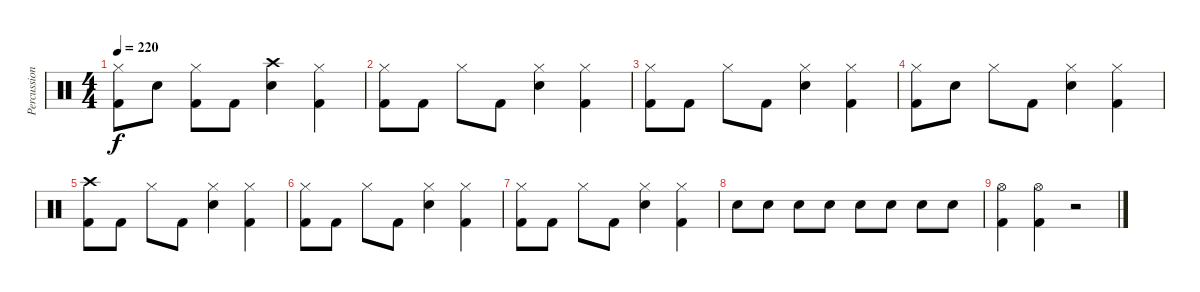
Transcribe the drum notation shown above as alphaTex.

\track ("Percussion" "Percussion") {instrument percussion}
\staff {score}
\articulation defaults
\ts (4 4)
\tempo 220
\clef neutral
\ks c
("Hi-Hat (closed)" "Kick (hit) 2").8{dy f} "Snare (hit) 2".8 ("Hi-Hat (closed)" "Kick (hit) 2").8 "Kick (hit) 2".8 ("Crash high (hit)" "Snare (hit) 2").4 ("Hi-Hat (closed)" "Kick (hit) 2").4 |
("Hi-Hat (closed)" "Kick (hit) 2").8 "Kick (hit) 2".8 "Hi-Hat (closed)".8 "Kick (hit) 2".8 ("Hi-Hat (closed)" "Snare (hit) 2").4 ("Hi-Hat (closed)" "Kick (hit) 2").4 |
("Hi-Hat (closed)" "Kick (hit) 2").8 "Kick (hit) 2".8 "Hi-Hat (closed)".8 "Kick (hit) 2".8 ("Hi-Hat (closed)" "Snare (hit) 2").4 ("Hi-Hat (closed)" "Kick (hit) 2").4 |
("Hi-Hat (closed)" "Kick (hit) 2").8 "Snare (hit) 2".8 "Hi-Hat (closed)".8 "Kick (hit) 2".8 ("Hi-Hat (closed)" "Snare (hit) 2").4 ("Hi-Hat (closed)" "Kick (hit) 2").4 |
("Crash high (hit)" "Kick (hit) 2").8 "Kick (hit) 2".8 "Hi-Hat (closed)".8 "Kick (hit) 2".8 ("Hi-Hat (closed)" "Snare (hit) 2").4 ("Hi-Hat (closed)" "Kick (hit) 2").4 |
("Hi-Hat (closed)" "Kick (hit) 2").8 "Kick (hit) 2".8 "Hi-Hat (closed)".8 "Kick (hit) 2".8 ("Hi-Hat (closed)" "Snare (hit) 2").4 ("Hi-Hat (closed)" "Kick (hit) 2").4 |
("Hi-Hat (closed)" "Kick (hit) 2").8 "Kick (hit) 2".8 "Hi-Hat (closed)".8 "Kick (hit) 2".8 ("Hi-Hat (closed)" "Snare (hit) 2").4 ("Hi-Hat (closed)" "Kick (hit) 2").4 |
"Snare (hit) 2".8 "Snare (hit) 2".8 "Snare (hit) 2".8 "Snare (hit) 2".8 "Snare (hit) 2".8 "Snare (hit) 2".8 "Snare (hit) 2".8 "Snare (hit) 2".8 |
("Hi-Hat (open)" "Kick (hit) 2").4 ("Hi-Hat (open)" "Kick (hit) 2").4 r.2
